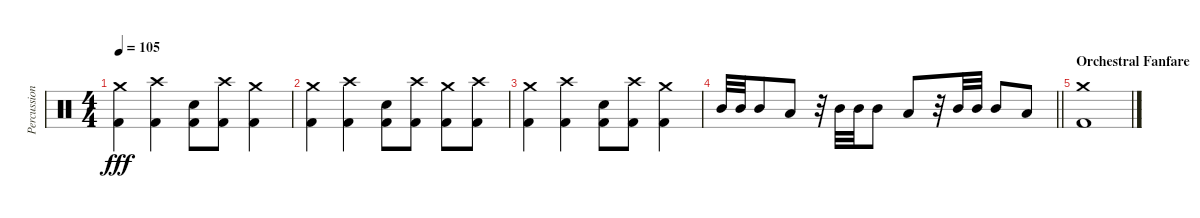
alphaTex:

\track ("Percussions" "Percussion") {instrument percussion}
\staff {score}
\articulation defaults
\ts (4 4)
\tempo 120
\tempo 105
\clef neutral
\ks c
("Crash medium (hit)" "Kick (hit) 2").4{dy fff} ("Crash high (hit)" "Kick (hit) 2").4 ("Snare (hit) 2" "Kick (hit) 2").8 ("Crash high (hit)" "Kick (hit) 2").8 ("Crash medium (hit)" "Kick (hit) 2").4 |
("Crash medium (hit)" "Kick (hit) 2").4 ("Crash high (hit)" "Kick (hit) 2").4 ("Snare (hit) 2" "Kick (hit) 2").8 ("Crash high (hit)" "Kick (hit) 2").8 ("Crash medium (hit)" "Kick (hit) 2").8 ("Crash high (hit)" "Kick (hit) 2").8 |
("Crash medium (hit)" "Kick (hit) 2").4 ("Crash high (hit)" "Kick (hit) 2").4 ("Snare (hit) 2" "Kick (hit) 2").8 ("Crash high (hit)" "Kick (hit) 2").8 ("Crash medium (hit)" "Kick (hit) 2").4 |
\barLineRight lightlight "Mid Tom (hit)".32 "Mid Tom (hit)".32 "Mid Tom (hit)".8 "Low Tom (hit)".8
r.32 "Mid Tom (hit)".32 "Mid Tom (hit)".32 "Mid Tom (hit)".8 "Low Tom (hit)".8 r.32 "Mid Tom (hit)".32 "Mid Tom (hit)".32 "Mid Tom (hit)".8 "Low Tom (hit)".8 |
\section ("" "Orchestral Fanfare")
("Crash medium (hit)" "Kick (hit) 2").1
